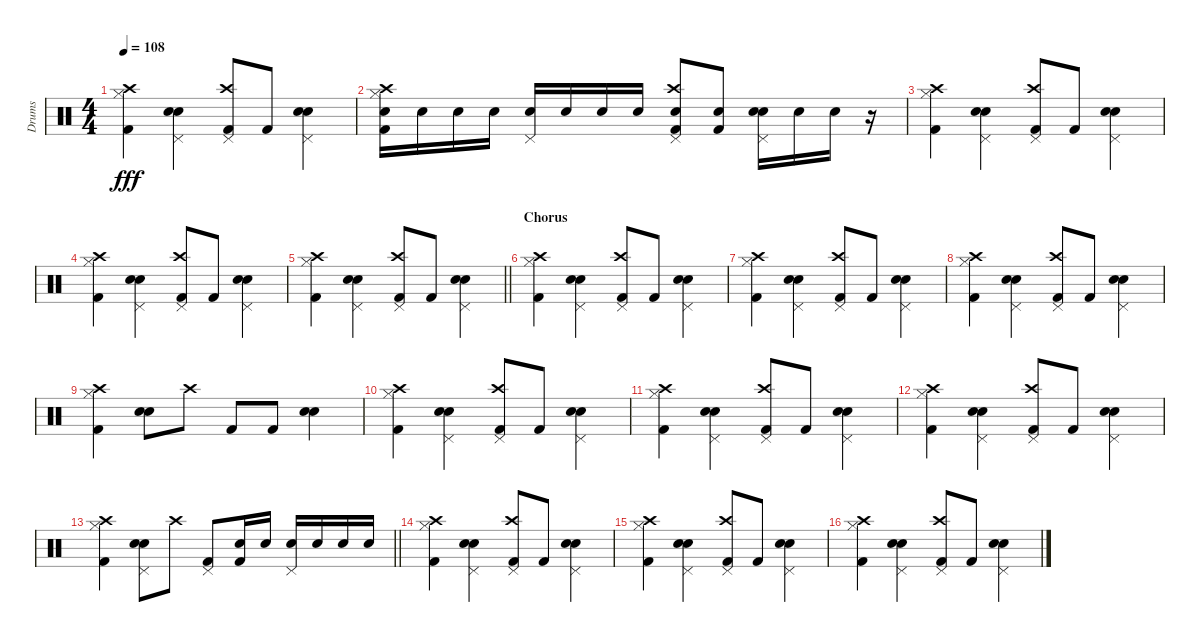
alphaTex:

\track ("Drums" "Drums") {instrument percussion}
\staff {score}
\articulation defaults
\ts (4 4)
\tempo 108
\clef neutral
\ks c
("Hi-Hat (closed)" "Kick (hit) 2" "Crash high (hit)").4{dy fff} ("Electric Snare (hit)" "Pedal Hi-Hat (hit)" "Snare (hit) 2").4 ("Pedal Hi-Hat (hit)" "Kick (hit) 2" "Crash high (hit)").8 "Kick (hit) 2".8 ("Electric Snare (hit)" "Pedal Hi-Hat (hit)" "Snare (hit) 2").4 |
("Hi-Hat (closed)" "Kick (hit) 2" "Crash high (hit)" "Electric Snare (hit)").16 "Electric Snare (hit)".16 "Electric Snare (hit)".16 "Electric Snare (hit)".16 ("Pedal Hi-Hat (hit)" "Snare (hit) 2").16 "Snare (hit) 2".16 "Snare (hit) 2".16 "Snare (hit) 2".16 ("Pedal Hi-Hat (hit)" "Kick (hit) 2" "Crash high (hit)" "Snare (hit) 2").8 ("Kick (hit) 2" "Snare (hit) 2").8 ("Electric Snare (hit)" "Pedal Hi-Hat (hit)" "Snare (hit) 2").16 "Snare (hit) 2".16 "Snare (hit) 2".16 r.16 |
("Hi-Hat (closed)" "Kick (hit) 2" "Crash high (hit)").4 ("Electric Snare (hit)" "Pedal Hi-Hat (hit)" "Snare (hit) 2").4 ("Pedal Hi-Hat (hit)" "Kick (hit) 2" "Crash high (hit)").8 "Kick (hit) 2".8 ("Electric Snare (hit)" "Pedal Hi-Hat (hit)" "Snare (hit) 2").4 |
("Hi-Hat (closed)" "Kick (hit) 2" "Crash high (hit)").4 ("Electric Snare (hit)" "Pedal Hi-Hat (hit)" "Snare (hit) 2").4 ("Pedal Hi-Hat (hit)" "Kick (hit) 2" "Crash high (hit)").8 "Kick (hit) 2".8 ("Electric Snare (hit)" "Pedal Hi-Hat (hit)" "Snare (hit) 2").4 |
\barLineRight lightlight
("Hi-Hat (closed)" "Kick (hit) 2" "Crash high (hit)").4 ("Electric Snare (hit)" "Pedal Hi-Hat (hit)" "Snare (hit) 2").4 ("Pedal Hi-Hat (hit)" "Kick (hit) 2" "Crash high (hit)").8 "Kick (hit) 2".8 ("Electric Snare (hit)" "Pedal Hi-Hat (hit)" "Snare (hit) 2").4 |
\section ("" "Chorus")
("Hi-Hat (closed)" "Kick (hit) 2" "Crash high (hit)").4 ("Electric Snare (hit)" "Pedal Hi-Hat (hit)" "Snare (hit) 2").4 ("Pedal Hi-Hat (hit)" "Kick (hit) 2" "Crash high (hit)").8 "Kick (hit) 2".8 ("Electric Snare (hit)" "Pedal Hi-Hat (hit)" "Snare (hit) 2").4 |
("Hi-Hat (closed)" "Kick (hit) 2" "Crash high (hit)").4 ("Electric Snare (hit)" "Pedal Hi-Hat (hit)" "Snare (hit) 2").4 ("Pedal Hi-Hat (hit)" "Kick (hit) 2" "Crash high (hit)").8 "Kick (hit) 2".8 ("Electric Snare (hit)" "Pedal Hi-Hat (hit)" "Snare (hit) 2").4 |
("Hi-Hat (closed)" "Kick (hit) 2" "Crash high (hit)").4 ("Electric Snare (hit)" "Pedal Hi-Hat (hit)" "Snare (hit) 2").4 ("Pedal Hi-Hat (hit)" "Kick (hit) 2" "Crash high (hit)").8 "Kick (hit) 2".8 ("Electric Snare (hit)" "Pedal Hi-Hat (hit)" "Snare (hit) 2").4 |
("Hi-Hat (closed)" "Kick (hit) 2" "Crash high (hit)").4 ("Electric Snare (hit)" "Snare (hit) 2").8 "Crash high (hit)".8 "Kick (hit) 2".8 "Kick (hit) 2".8 ("Electric Snare (hit)" "Snare (hit) 2").4 |
("Hi-Hat (closed)" "Kick (hit) 2" "Crash high (hit)").4 ("Electric Snare (hit)" "Pedal Hi-Hat (hit)" "Snare (hit) 2").4 ("Pedal Hi-Hat (hit)" "Kick (hit) 2" "Crash high (hit)").8 "Kick (hit) 2".8 ("Electric Snare (hit)" "Pedal Hi-Hat (hit)" "Snare (hit) 2").4 |
("Hi-Hat (closed)" "Kick (hit) 2" "Crash high (hit)").4 ("Electric Snare (hit)" "Pedal Hi-Hat (hit)" "Snare (hit) 2").4 ("Pedal Hi-Hat (hit)" "Kick (hit) 2" "Crash high (hit)").8 "Kick (hit) 2".8 ("Electric Snare (hit)" "Pedal Hi-Hat (hit)" "Snare (hit) 2").4 |
("Hi-Hat (closed)" "Kick (hit) 2" "Crash high (hit)").4 ("Electric Snare (hit)" "Pedal Hi-Hat (hit)" "Snare (hit) 2").4 ("Pedal Hi-Hat (hit)" "Kick (hit) 2" "Crash high (hit)").8 "Kick (hit) 2".8 ("Electric Snare (hit)" "Pedal Hi-Hat (hit)" "Snare (hit) 2").4 |
\barLineRight lightlight
("Hi-Hat (closed)" "Kick (hit) 2" "Crash high (hit)").4 ("Electric Snare (hit)" "Pedal Hi-Hat (hit)" "Snare (hit) 2").8 "Crash high (hit)".8 ("Pedal Hi-Hat (hit)" "Kick (hit) 2").8 ("Kick (hit) 2" "Snare (hit) 2").16 "Snare (hit) 2".16 ("Pedal Hi-Hat (hit)" "Electric Snare (hit)").16 "Electric Snare (hit)".16 "Electric Snare (hit)".16 "Electric Snare (hit)".16 |
("Hi-Hat (closed)" "Kick (hit) 2" "Crash high (hit)").4 ("Electric Snare (hit)" "Pedal Hi-Hat (hit)" "Snare (hit) 2").4 ("Pedal Hi-Hat (hit)" "Kick (hit) 2" "Crash high (hit)").8 "Kick (hit) 2".8 ("Electric Snare (hit)" "Pedal Hi-Hat (hit)" "Snare (hit) 2").4 |
("Hi-Hat (closed)" "Kick (hit) 2" "Crash high (hit)").4 ("Electric Snare (hit)" "Pedal Hi-Hat (hit)" "Snare (hit) 2").4 ("Pedal Hi-Hat (hit)" "Kick (hit) 2" "Crash high (hit)").8 "Kick (hit) 2".8 ("Electric Snare (hit)" "Pedal Hi-Hat (hit)" "Snare (hit) 2").4 |
("Hi-Hat (closed)" "Kick (hit) 2" "Crash high (hit)").4 ("Electric Snare (hit)" "Pedal Hi-Hat (hit)" "Snare (hit) 2").4 ("Pedal Hi-Hat (hit)" "Kick (hit) 2" "Crash high (hit)").8 "Kick (hit) 2".8 ("Electric Snare (hit)" "Pedal Hi-Hat (hit)" "Snare (hit) 2").4
